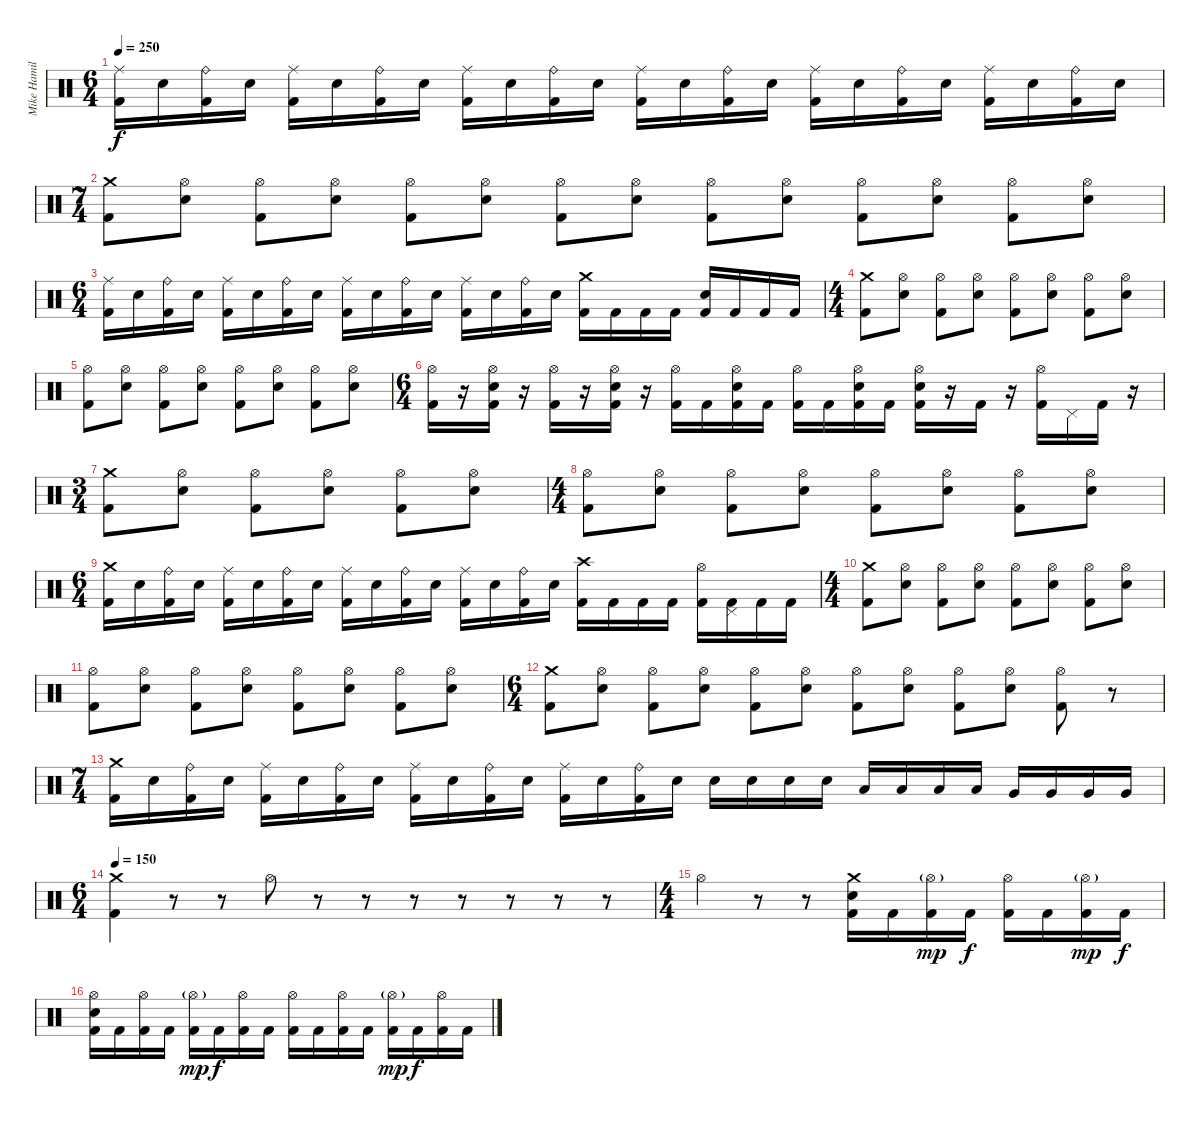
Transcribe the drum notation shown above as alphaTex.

\track ("Mike Hamilton" "Mike Hamil") {instrument percussion}
\staff {score}
\articulation defaults
\ts (6 4)
\tempo 250
\clef neutral
\ks c
("Ride (middle)" "Kick (hit) 2").16{dy f} "Electric Snare (hit)".16 ("Ride (bell)" "Kick (hit) 2").16 "Electric Snare (hit)".16 ("Ride (middle)" "Kick (hit) 2").16 "Electric Snare (hit)".16 ("Ride (bell)" "Kick (hit) 2").16 "Electric Snare (hit)".16 ("Ride (middle)" "Kick (hit) 2").16 "Electric Snare (hit)".16 ("Ride (bell)" "Kick (hit) 2").16 "Electric Snare (hit)".16 ("Ride (middle)" "Kick (hit) 2").16 "Electric Snare (hit)".16 ("Ride (bell)" "Kick (hit) 2").16 "Electric Snare (hit)".16 ("Ride (middle)" "Kick (hit) 2").16 "Electric Snare (hit)".16 ("Ride (bell)" "Kick (hit) 2").16 "Electric Snare (hit)".16 ("Ride (middle)" "Kick (hit) 2").16 "Electric Snare (hit)".16 ("Ride (bell)" "Kick (hit) 2").16 "Electric Snare (hit)".16 |
\ts (7 4)
("Crash medium (hit)" "Kick (hit) 2").8 ("Hi-Hat (open)" "Electric Snare (hit)").8 ("Hi-Hat (open)" "Kick (hit) 2").8 ("Hi-Hat (open)" "Electric Snare (hit)").8 ("Hi-Hat (open)" "Kick (hit) 2").8 ("Hi-Hat (open)" "Electric Snare (hit)").8 ("Hi-Hat (open)" "Kick (hit) 2").8 ("Hi-Hat (open)" "Electric Snare (hit)").8 ("Hi-Hat (open)" "Kick (hit) 2").8 ("Hi-Hat (open)" "Electric Snare (hit)").8 ("Hi-Hat (open)" "Kick (hit) 2").8 ("Hi-Hat (open)" "Electric Snare (hit)").8 ("Hi-Hat (open)" "Kick (hit) 2").8 ("Hi-Hat (open)" "Electric Snare (hit)").8 |
\ts (6 4)
("Ride (middle)" "Kick (hit) 2").16 "Electric Snare (hit)".16 ("Ride (bell)" "Kick (hit) 2").16 "Electric Snare (hit)".16 ("Ride (middle)" "Kick (hit) 2").16 "Electric Snare (hit)".16 ("Ride (bell)" "Kick (hit) 2").16 "Electric Snare (hit)".16 ("Ride (middle)" "Kick (hit) 2").16 "Electric Snare (hit)".16 ("Ride (bell)" "Kick (hit) 2").16 "Electric Snare (hit)".16 ("Ride (middle)" "Kick (hit) 2").16 "Electric Snare (hit)".16 ("Ride (bell)" "Kick (hit) 2").16 "Electric Snare (hit)".16 ("Crash medium (hit)" "Kick (hit) 2").16 "Kick (hit) 2".16 "Kick (hit) 2".16 "Kick (hit) 2".16 ("Electric Snare (hit)" "Kick (hit) 2").16 "Kick (hit) 2".16 "Kick (hit) 2".16 "Kick (hit) 2".16 |
\ts (4 4)
("Crash medium (hit)" "Kick (hit) 2").8 ("Hi-Hat (open)" "Electric Snare (hit)").8 ("Hi-Hat (open)" "Kick (hit) 2").8 ("Hi-Hat (open)" "Electric Snare (hit)").8 ("Hi-Hat (open)" "Kick (hit) 2").8 ("Hi-Hat (open)" "Electric Snare (hit)").8 ("Hi-Hat (open)" "Kick (hit) 2").8 ("Hi-Hat (open)" "Electric Snare (hit)").8 |
("Hi-Hat (open)" "Kick (hit) 2").8 ("Hi-Hat (open)" "Electric Snare (hit)").8 ("Hi-Hat (open)" "Kick (hit) 2").8 ("Hi-Hat (open)" "Electric Snare (hit)").8 ("Hi-Hat (open)" "Kick (hit) 2").8 ("Hi-Hat (open)" "Electric Snare (hit)").8 ("Hi-Hat (open)" "Kick (hit) 2").8 ("Hi-Hat (open)" "Electric Snare (hit)").8 |
\ts (6 4)
("Hi-Hat (open)" "Kick (hit) 2").16 r.16 ("Hi-Hat (open)" "Electric Snare (hit)" "Kick (hit) 2").16 r.16 ("Hi-Hat (open)" "Kick (hit) 2").16 r.16 ("Hi-Hat (open)" "Electric Snare (hit)" "Kick (hit) 2").16 r.16 ("Hi-Hat (open)" "Kick (hit) 2").16 "Kick (hit) 2".16 ("Hi-Hat (open)" "Electric Snare (hit)" "Kick (hit) 2").16 "Kick (hit) 2".16 ("Hi-Hat (open)" "Kick (hit) 2").16 "Kick (hit) 2".16 ("Hi-Hat (open)" "Electric Snare (hit)" "Kick (hit) 2").16 "Kick (hit) 2".16 ("Hi-Hat (open)" "Electric Snare (hit)" "Kick (hit) 2").16 r.16 "Kick (hit) 2".16 r.16 ("Hi-Hat (open)" "Kick (hit) 2").16 "Pedal Hi-Hat (hit)".16 "Kick (hit) 2".16 r.16 |
\ts (3 4)
("Crash medium (hit)" "Kick (hit) 2").8 ("Hi-Hat (open)" "Electric Snare (hit)").8 ("Hi-Hat (open)" "Kick (hit) 2").8 ("Hi-Hat (open)" "Electric Snare (hit)").8 ("Hi-Hat (open)" "Kick (hit) 2").8 ("Hi-Hat (open)" "Electric Snare (hit)").8 |
\ts (4 4)
("Hi-Hat (open)" "Kick (hit) 2").8 ("Hi-Hat (open)" "Electric Snare (hit)").8 ("Hi-Hat (open)" "Kick (hit) 2").8 ("Hi-Hat (open)" "Electric Snare (hit)").8 ("Hi-Hat (open)" "Kick (hit) 2").8 ("Hi-Hat (open)" "Electric Snare (hit)").8 ("Hi-Hat (open)" "Kick (hit) 2").8 ("Hi-Hat (open)" "Electric Snare (hit)").8 |
\ts (6 4)
("Crash medium (hit)" "Kick (hit) 2").16 "Electric Snare (hit)".16 ("Ride (bell)" "Kick (hit) 2").16 "Electric Snare (hit)".16 ("Ride (middle)" "Kick (hit) 2").16 "Electric Snare (hit)".16 ("Ride (bell)" "Kick (hit) 2").16 "Electric Snare (hit)".16 ("Ride (middle)" "Kick (hit) 2").16 "Electric Snare (hit)".16 ("Ride (bell)" "Kick (hit) 2").16 "Electric Snare (hit)".16 ("Ride (middle)" "Kick (hit) 2").16 "Electric Snare (hit)".16 ("Ride (bell)" "Kick (hit) 2").16 "Electric Snare (hit)".16 ("Crash high (hit)" "Kick (hit) 2").16 "Kick (hit) 2".16 "Kick (hit) 2".16 "Kick (hit) 2".16 ("Hi-Hat (open)" "Kick (hit) 2").16 ("Pedal Hi-Hat (hit)" "Kick (hit) 2").16 "Kick (hit) 2".16 "Kick (hit) 2".16 |
\ts (4 4)
("Crash medium (hit)" "Kick (hit) 2").8 ("Hi-Hat (open)" "Electric Snare (hit)").8 ("Hi-Hat (open)" "Kick (hit) 2").8 ("Hi-Hat (open)" "Electric Snare (hit)").8 ("Hi-Hat (open)" "Kick (hit) 2").8 ("Hi-Hat (open)" "Electric Snare (hit)").8 ("Hi-Hat (open)" "Kick (hit) 2").8 ("Hi-Hat (open)" "Electric Snare (hit)").8 |
("Hi-Hat (open)" "Kick (hit) 2").8 ("Hi-Hat (open)" "Electric Snare (hit)").8 ("Hi-Hat (open)" "Kick (hit) 2").8 ("Hi-Hat (open)" "Electric Snare (hit)").8 ("Hi-Hat (open)" "Kick (hit) 2").8 ("Hi-Hat (open)" "Electric Snare (hit)").8 ("Hi-Hat (open)" "Kick (hit) 2").8 ("Hi-Hat (open)" "Electric Snare (hit)").8 |
\ts (6 4)
("Crash medium (hit)" "Kick (hit) 2").8 ("Hi-Hat (open)" "Electric Snare (hit)").8 ("Hi-Hat (open)" "Kick (hit) 2").8 ("Hi-Hat (open)" "Electric Snare (hit)").8 ("Hi-Hat (open)" "Kick (hit) 2").8 ("Hi-Hat (open)" "Electric Snare (hit)").8 ("Hi-Hat (open)" "Kick (hit) 2").8 ("Hi-Hat (open)" "Electric Snare (hit)").8 ("Hi-Hat (open)" "Kick (hit) 2").8 ("Hi-Hat (open)" "Electric Snare (hit)").8 ("Hi-Hat (open)" "Kick (hit) 2").8 r.8 |
\ts (7 4)
("Crash medium (hit)" "Kick (hit) 2").16 "Electric Snare (hit)".16 ("Ride (bell)" "Kick (hit) 2").16 "Electric Snare (hit)".16 ("Ride (middle)" "Kick (hit) 2").16 "Electric Snare (hit)".16 ("Ride (bell)" "Kick (hit) 2").16 "Electric Snare (hit)".16 ("Ride (middle)" "Kick (hit) 2").16 "Electric Snare (hit)".16 ("Ride (bell)" "Kick (hit) 2").16 "Electric Snare (hit)".16 ("Ride (middle)" "Kick (hit) 2").16 "Electric Snare (hit)".16 ("Ride (bell)" "Kick (hit) 2").16 "Electric Snare (hit)".16 "Electric Snare (hit)".16 "Electric Snare (hit)".16 "Electric Snare (hit)".16 "Electric Snare (hit)".16 "Low Tom (hit)".16 "Low Tom (hit)".16 "Low Tom (hit)".16 "Low Tom (hit)".16 "Very Low Tom (hit)".16 "Very Low Tom (hit)".16 "Very Low Tom (hit)".16 "Very Low Tom (hit)".16 |
\ts (6 4)
\tempo 150
("Crash medium (hit)" "Kick (hit) 2").4 r.8 r.8 "Hi-Hat (open)".8 r.8 r.8 r.8 r.8 r.8 r.8 r.8 |
\ts (4 4)
"Hi-Hat (open)".4 r.8 r.8 ("Crash medium (hit)" "Electric Snare (hit)" "Kick (hit) 2").16 "Kick (hit) 2".16 ("Hi-Hat (open)"{g} "Kick (hit) 2").16{dy mp} "Kick (hit) 2".16{dy f} ("Hi-Hat (open)" "Kick (hit) 2").16 "Kick (hit) 2".16 ("Hi-Hat (open)"{g} "Kick (hit) 2").16{dy mp} "Kick (hit) 2".16{dy f} |
("Hi-Hat (open)" "Electric Snare (hit)" "Kick (hit) 2").16 "Kick (hit) 2".16 ("Hi-Hat (open)" "Kick (hit) 2").16 "Kick (hit) 2".16 ("Hi-Hat (open)"{g} "Kick (hit) 2").16{dy mp} "Kick (hit) 2".16{dy f} ("Hi-Hat (open)" "Kick (hit) 2").16 "Kick (hit) 2".16 ("Hi-Hat (open)" "Kick (hit) 2").16 "Kick (hit) 2".16 ("Hi-Hat (open)" "Kick (hit) 2").16 "Kick (hit) 2".16 ("Hi-Hat (open)"{g} "Kick (hit) 2").16{dy mp} "Kick (hit) 2".16{dy f} ("Hi-Hat (open)" "Kick (hit) 2").16 "Kick (hit) 2".16
